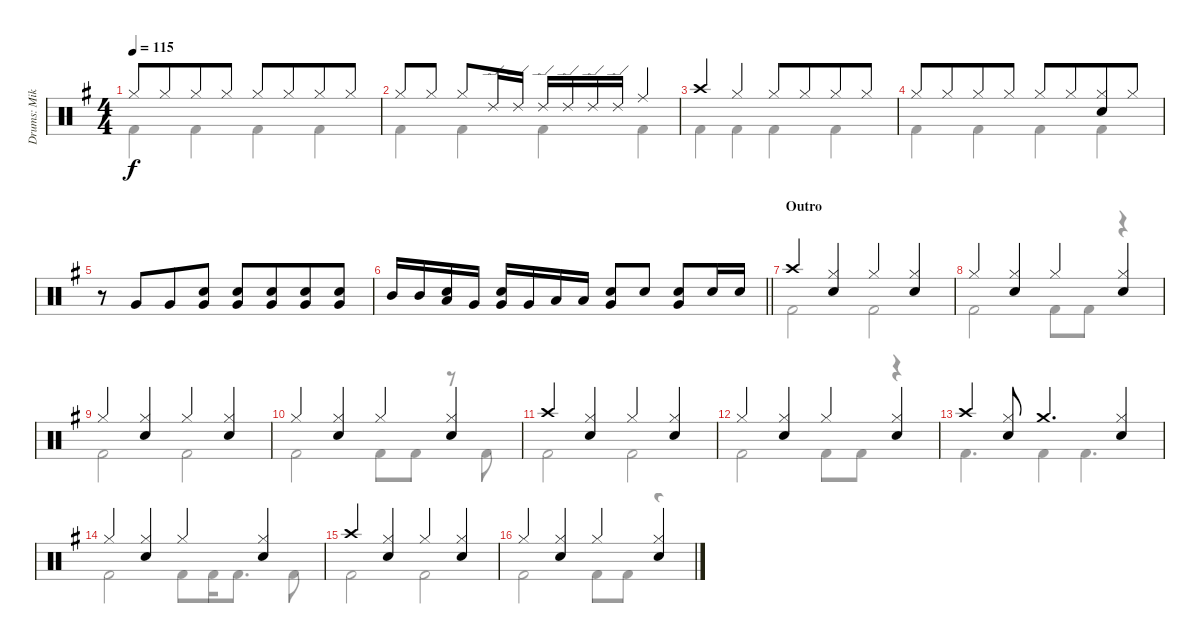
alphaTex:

\track ("Drums: Mikkey" "Drums: Mik") {instrument percussion}
\staff {score}
\articulation defaults
\voice
\ts (4 4)
\tempo 115
\clef neutral
\ks g "Hi-Hat (closed)".8{dy f} "Hi-Hat (closed)".8{beam merge} "Hi-Hat (closed)".8 "Hi-Hat (closed)".8 "Hi-Hat (closed)".8 "Hi-Hat (closed)".8{beam merge} "Hi-Hat (closed)".8 "Hi-Hat (closed)".8
|
"Hi-Hat (closed)".8 "Hi-Hat (closed)".8 "Hi-Hat (closed)".8 "Ride (edge) 2".16 "Ride (edge) 2".16 "Ride (edge) 2".16 "Ride (edge) 2".16 "Ride (edge) 2".16 "Ride (edge) 2".16 "Ride (middle)".4 |
"Crash high (hit)".4 "Hi-Hat (closed)".4 "Hi-Hat (closed)".8 "Hi-Hat (closed)".8{beam merge} "Hi-Hat (closed)".8 "Hi-Hat (closed)".8 |
"Hi-Hat (closed)".8 "Hi-Hat (closed)".8{beam merge} "Hi-Hat (closed)".8 "Hi-Hat (closed)".8 "Hi-Hat (closed)".8 "Hi-Hat (closed)".8{beam merge} ("Hi-Hat (closed)" "Snare (hit) 2").8 "Hi-Hat (closed)".8 |
r.8 "Very Low Tom (hit)".8{beam merge} "Very Low Tom (hit)".8 ("Snare (hit) 2" "Very Low Tom (hit)").8 ("Snare (hit) 2" "Very Low Tom (hit)").8 ("Snare (hit) 2" "Very Low Tom (hit)").8{beam merge} ("Snare (hit) 2" "Very Low Tom (hit)").8 ("Snare (hit) 2" "Very Low Tom (hit)").8 |
\barLineRight lightlight "Mid Tom (hit)".16 "Mid Tom (hit)".16
("Snare (hit) 2" "Low Tom (hit)").16 "Very Low Tom (hit)".16 ("Snare (hit) 2" "Very Low Tom (hit)").16 "Very Low Tom (hit)".16 "Low Floor Tom (hit)".16 "Low Floor Tom (hit)".16 ("Snare (hit) 2" "Very Low Tom (hit)").8 "Snare (hit) 2".8 ("Snare (hit) 2" "Very Low Tom (hit)").8 "Snare (hit) 2".16 "Snare (hit) 2".16 |
\section ("" "Outro")
"Crash high (hit)".4 ("Hi-Hat (closed)" "Snare (hit) 2").4 "Hi-Hat (closed)".4 ("Hi-Hat (closed)" "Snare (hit) 2").4 |
"Hi-Hat (closed)".4 ("Hi-Hat (closed)" "Snare (hit) 2").4 "Hi-Hat (closed)".4 ("Hi-Hat (closed)" "Snare (hit) 2").4 |
"Hi-Hat (closed)".4 ("Hi-Hat (closed)" "Snare (hit) 2").4 "Hi-Hat (closed)".4 ("Hi-Hat (closed)" "Snare (hit) 2").4 |
"Hi-Hat (closed)".4 ("Hi-Hat (closed)" "Snare (hit) 2").4 "Hi-Hat (closed)".4 ("Hi-Hat (closed)" "Snare (hit) 2").4 |
"Crash high (hit)".4 ("Hi-Hat (closed)" "Snare (hit) 2").4 "Hi-Hat (closed)".4 ("Hi-Hat (closed)" "Snare (hit) 2").4 |
"Hi-Hat (closed)".4 ("Hi-Hat (closed)" "Snare (hit) 2").4 "Hi-Hat (closed)".4 ("Hi-Hat (closed)" "Snare (hit) 2").4 |
"Crash high (hit)".4 ("Hi-Hat (closed)" "Snare (hit) 2").8 "Crash medium (hit)".4{d} ("Hi-Hat (closed)" "Snare (hit) 2").4 |
"Hi-Hat (closed)".4 ("Hi-Hat (closed)" "Snare (hit) 2").4 "Hi-Hat (closed)".4 ("Hi-Hat (closed)" "Snare (hit) 2").4 |
"Crash high (hit)".4 ("Hi-Hat (closed)" "Snare (hit) 2").4 "Hi-Hat (closed)".4 ("Hi-Hat (closed)" "Snare (hit) 2").4 |
"Hi-Hat (closed)".4 ("Hi-Hat (closed)" "Snare (hit) 2").4 "Hi-Hat (closed)".4 ("Hi-Hat (closed)" "Snare (hit) 2").4
\voice
\clef neutral
\ottava regular
\simile none
\ks g "Kick (hit) 2".4{dy f} "Kick (hit) 2".4 "Kick (hit) 2".4 "Kick (hit) 2".4
|
"Kick (hit) 2".4 "Kick (hit) 2".4 "Kick (hit) 2".4 "Kick (hit) 2".4 |
"Kick (hit) 2".4 "Kick (hit) 2".4 "Kick (hit) 2".4 "Kick (hit) 2".4 |
"Kick (hit) 2".4 "Kick (hit) 2".4 "Kick (hit) 2".4 "Kick (hit) 2".4 |
|
\barLineRight lightlight
|
"Kick (hit) 2".2 "Kick (hit) 2".2 |
"Kick (hit) 2".2 "Kick (hit) 2".8 "Kick (hit) 2".8 r.4 |
"Kick (hit) 2".2 "Kick (hit) 2".2 |
"Kick (hit) 2".2 "Kick (hit) 2".8 "Kick (hit) 2".8 r.8 "Kick (hit) 2".8 |
"Kick (hit) 2".2 "Kick (hit) 2".2 |
"Kick (hit) 2".2 "Kick (hit) 2".8 "Kick (hit) 2".8 r.4 |
"Kick (hit) 2".4{d} "Kick (hit) 2".4 "Kick (hit) 2".4{d} |
"Kick (hit) 2".2 "Kick (hit) 2".8 "Kick (hit) 2".16 "Kick (hit) 2".8{d} "Kick (hit) 2".8 |
"Kick (hit) 2".2 "Kick (hit) 2".2 |
"Kick (hit) 2".2 "Kick (hit) 2".8 "Kick (hit) 2".8 r.4
